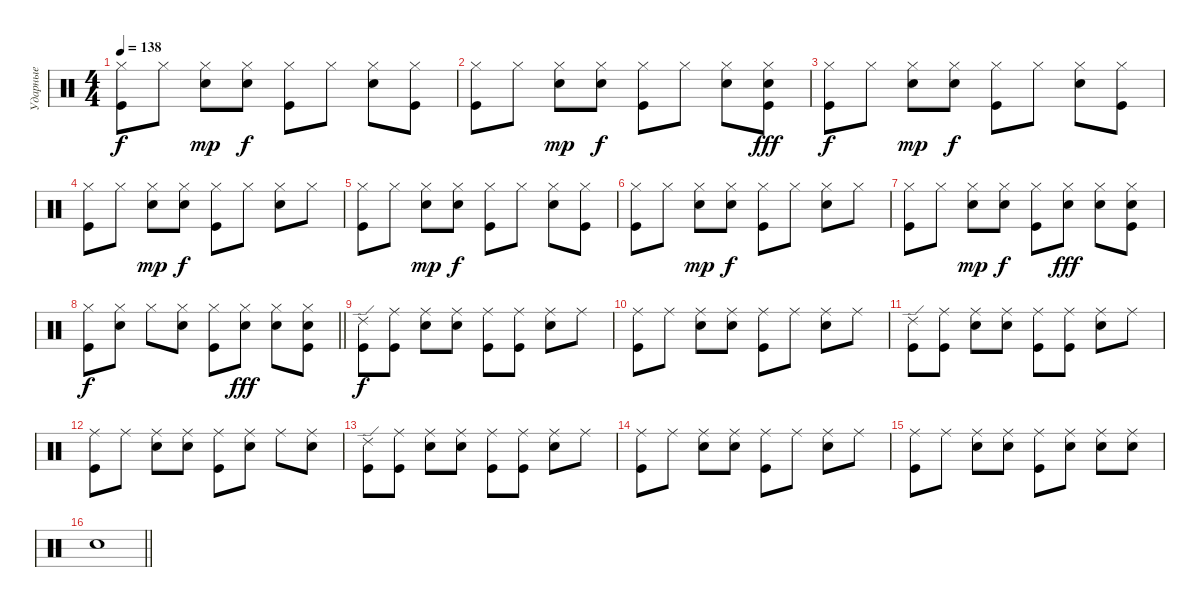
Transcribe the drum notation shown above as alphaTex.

\track ("Ударные" "Ударные") {instrument percussion}
\staff {score}
\articulation defaults
\ts (4 4)
\tempo 138
\clef neutral
\ks c
("Hi-Hat (closed)" "Kick (hit)").8{dy f} "Hi-Hat (closed)".8 ("Hi-Hat (closed)" "Snare (hit) 2").8{dy mp} ("Hi-Hat (closed)" "Snare (hit) 2").8{dy f} ("Hi-Hat (closed)" "Kick (hit)").8 "Hi-Hat (closed)".8 ("Hi-Hat (closed)" "Snare (hit) 2").8 ("Hi-Hat (closed)" "Kick (hit)").8 |
("Hi-Hat (closed)" "Kick (hit)").8 "Hi-Hat (closed)".8 ("Hi-Hat (closed)" "Snare (hit) 2").8{dy mp} ("Hi-Hat (closed)" "Snare (hit) 2").8{dy f} ("Hi-Hat (closed)" "Kick (hit)").8 "Hi-Hat (closed)".8 ("Hi-Hat (closed)" "Snare (hit) 2").8 ("Hi-Hat (closed)" "Kick (hit)" "Snare (hit) 2").8{dy fff} |
("Hi-Hat (closed)" "Kick (hit)").8{dy f} "Hi-Hat (closed)".8 ("Hi-Hat (closed)" "Snare (hit) 2").8{dy mp} ("Hi-Hat (closed)" "Snare (hit) 2").8{dy f} ("Hi-Hat (closed)" "Kick (hit)").8 "Hi-Hat (closed)".8 ("Hi-Hat (closed)" "Snare (hit) 2").8 ("Hi-Hat (closed)" "Kick (hit)").8 |
("Hi-Hat (closed)" "Kick (hit)").8 "Hi-Hat (closed)".8 ("Hi-Hat (closed)" "Snare (hit) 2").8{dy mp} ("Hi-Hat (closed)" "Snare (hit) 2").8{dy f} ("Hi-Hat (closed)" "Kick (hit)").8 "Hi-Hat (closed)".8 ("Hi-Hat (closed)" "Snare (hit) 2").8 "Hi-Hat (closed)".8 |
("Hi-Hat (closed)" "Kick (hit)").8 "Hi-Hat (closed)".8 ("Hi-Hat (closed)" "Snare (hit) 2").8{dy mp} ("Hi-Hat (closed)" "Snare (hit) 2").8{dy f} ("Hi-Hat (closed)" "Kick (hit)").8 "Hi-Hat (closed)".8 ("Hi-Hat (closed)" "Snare (hit) 2").8 ("Hi-Hat (closed)" "Kick (hit)").8 |
("Hi-Hat (closed)" "Kick (hit)").8 "Hi-Hat (closed)".8 ("Hi-Hat (closed)" "Snare (hit) 2").8{dy mp} ("Hi-Hat (closed)" "Snare (hit) 2").8{dy f} ("Hi-Hat (closed)" "Kick (hit)").8 "Hi-Hat (closed)".8 ("Hi-Hat (closed)" "Snare (hit) 2").8 "Hi-Hat (closed)".8 |
("Hi-Hat (closed)" "Kick (hit)").8 "Hi-Hat (closed)".8 ("Hi-Hat (closed)" "Snare (hit) 2").8{dy mp} ("Hi-Hat (closed)" "Snare (hit) 2").8{dy f} ("Hi-Hat (closed)" "Kick (hit)").8 ("Hi-Hat (closed)" "Snare (hit) 2").8{dy fff} ("Hi-Hat (closed)" "Snare (hit) 2").8 ("Hi-Hat (closed)" "Kick (hit)" "Snare (hit) 2").8 |
\barLineRight lightlight
("Hi-Hat (closed)" "Kick (hit)").8{dy f} ("Hi-Hat (closed)" "Snare (hit) 2").8 "Hi-Hat (closed)".8 ("Hi-Hat (closed)" "Snare (hit) 2").8 ("Hi-Hat (closed)" "Kick (hit)").8 ("Hi-Hat (closed)" "Snare (hit) 2").8{dy fff} ("Hi-Hat (closed)" "Snare (hit) 2").8 ("Hi-Hat (closed)" "Kick (hit)" "Snare (hit) 2").8 |
("Ride (edge) 2" "Kick (hit)").8{dy f} ("Ride (middle)" "Kick (hit)").8 ("Ride (middle)" "Snare (hit) 2").8 ("Ride (middle)" "Snare (hit) 2").8 ("Ride (middle)" "Kick (hit)").8 ("Ride (middle)" "Kick (hit)").8 ("Ride (middle)" "Snare (hit) 2").8 "Ride (middle)".8 |
("Ride (middle)" "Kick (hit)").8 "Ride (middle)".8 ("Ride (middle)" "Snare (hit) 2").8 ("Ride (middle)" "Snare (hit) 2").8 ("Ride (middle)" "Kick (hit)").8 "Ride (middle)".8 ("Ride (middle)" "Snare (hit) 2").8 "Ride (middle)".8 |
("Ride (edge) 2" "Kick (hit)").8 ("Ride (middle)" "Kick (hit)").8 ("Ride (middle)" "Snare (hit) 2").8 ("Ride (middle)" "Snare (hit) 2").8 ("Ride (middle)" "Kick (hit)").8 ("Ride (middle)" "Kick (hit)").8 ("Ride (middle)" "Snare (hit) 2").8 "Ride (middle)".8 |
("Ride (middle)" "Kick (hit)").8 "Ride (middle)".8 ("Ride (middle)" "Snare (hit) 2").8 ("Ride (middle)" "Snare (hit) 2").8 ("Ride (middle)" "Kick (hit)").8 ("Ride (middle)" "Snare (hit) 2").8 "Ride (middle)".8 ("Ride (middle)" "Snare (hit) 2").8 |
("Ride (edge) 2" "Kick (hit)").8 ("Ride (middle)" "Kick (hit)").8 ("Ride (middle)" "Snare (hit) 2").8 ("Ride (middle)" "Snare (hit) 2").8 ("Ride (middle)" "Kick (hit)").8 ("Ride (middle)" "Kick (hit)").8 ("Ride (middle)" "Snare (hit) 2").8 "Ride (middle)".8 |
("Ride (middle)" "Kick (hit)").8 "Ride (middle)".8 ("Ride (middle)" "Snare (hit) 2").8 ("Ride (middle)" "Snare (hit) 2").8 ("Ride (middle)" "Kick (hit)").8 "Ride (middle)".8 ("Ride (middle)" "Snare (hit) 2").8 "Ride (middle)".8 |
("Ride (middle)" "Kick (hit)").8 "Ride (middle)".8 ("Ride (middle)" "Snare (hit) 2").8 ("Ride (middle)" "Snare (hit) 2").8 ("Ride (middle)" "Kick (hit)").8 ("Ride (middle)" "Snare (hit) 2").8 ("Ride (middle)" "Snare (hit) 2").8 ("Ride (middle)" "Snare (hit) 2").8 |
\barLineRight lightlight "Snare (hit) 2".1
